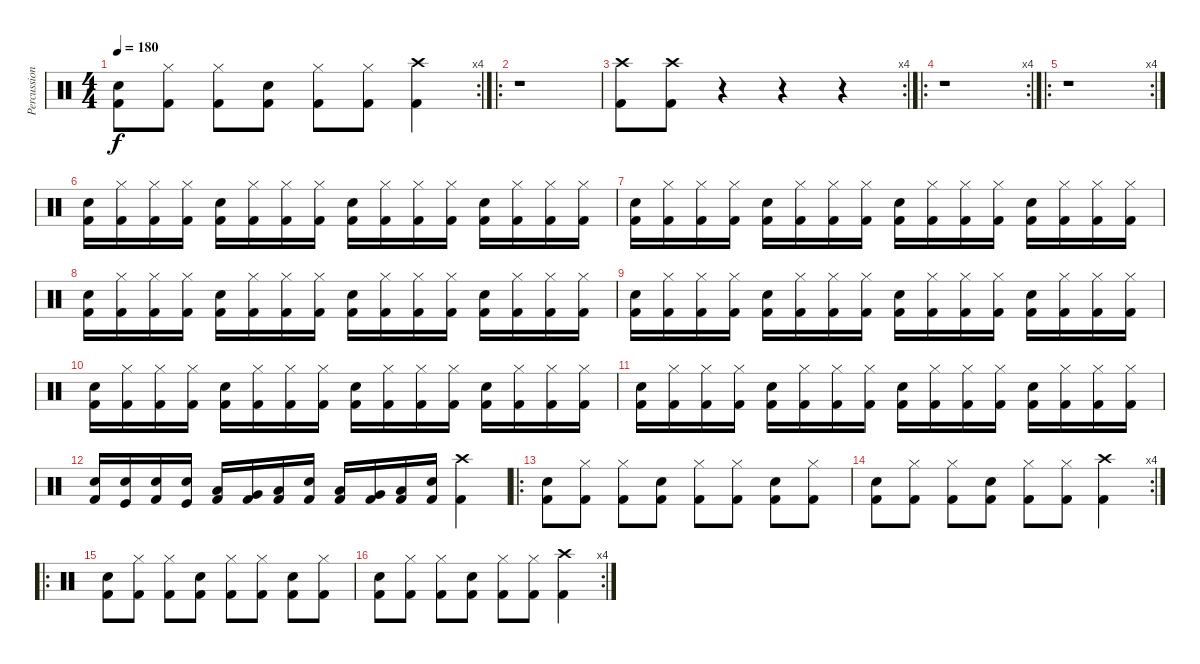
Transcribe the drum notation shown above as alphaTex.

\track ("Percussion" "Percussion") {instrument percussion}
\staff {score}
\articulation defaults
\rc 4
\ts (4 4)
\tempo 180
\clef neutral
\ks c
("Electric Snare (hit)" "Kick (hit) 2").8{dy f} ("Hi-Hat (closed)" "Kick (hit) 2").8 ("Hi-Hat (closed)" "Kick (hit) 2").8 ("Electric Snare (hit)" "Kick (hit) 2").8 ("Hi-Hat (closed)" "Kick (hit) 2").8 ("Hi-Hat (closed)" "Kick (hit) 2").8 ("Crash high (hit)" "Kick (hit) 2").4 |
\ro
r.1 |
\rc 4
("Crash high (hit)" "Kick (hit) 2").8 ("Crash high (hit)" "Kick (hit) 2").8 r.4 r.4 r.4 |
\ro
\rc 4
r.1 |
\ro
\rc 4
r.1 |
("Electric Snare (hit)" "Kick (hit) 2").16 ("Hi-Hat (closed)" "Kick (hit) 2").16 ("Hi-Hat (closed)" "Kick (hit) 2").16 ("Hi-Hat (closed)" "Kick (hit) 2").16 ("Electric Snare (hit)" "Kick (hit) 2").16 ("Hi-Hat (closed)" "Kick (hit) 2").16 ("Hi-Hat (closed)" "Kick (hit) 2").16 ("Hi-Hat (closed)" "Kick (hit) 2").16 ("Electric Snare (hit)" "Kick (hit) 2").16 ("Hi-Hat (closed)" "Kick (hit) 2").16 ("Hi-Hat (closed)" "Kick (hit) 2").16 ("Hi-Hat (closed)" "Kick (hit) 2").16 ("Electric Snare (hit)" "Kick (hit) 2").16 ("Hi-Hat (closed)" "Kick (hit) 2").16 ("Hi-Hat (closed)" "Kick (hit) 2").16 ("Hi-Hat (closed)" "Kick (hit) 2").16 |
("Electric Snare (hit)" "Kick (hit) 2").16 ("Hi-Hat (closed)" "Kick (hit) 2").16 ("Hi-Hat (closed)" "Kick (hit) 2").16 ("Hi-Hat (closed)" "Kick (hit) 2").16 ("Electric Snare (hit)" "Kick (hit) 2").16 ("Hi-Hat (closed)" "Kick (hit) 2").16 ("Hi-Hat (closed)" "Kick (hit) 2").16 ("Hi-Hat (closed)" "Kick (hit) 2").16 ("Electric Snare (hit)" "Kick (hit) 2").16 ("Hi-Hat (closed)" "Kick (hit) 2").16 ("Hi-Hat (closed)" "Kick (hit) 2").16 ("Hi-Hat (closed)" "Kick (hit) 2").16 ("Electric Snare (hit)" "Kick (hit) 2").16 ("Hi-Hat (closed)" "Kick (hit) 2").16 ("Hi-Hat (closed)" "Kick (hit) 2").16 ("Hi-Hat (closed)" "Kick (hit) 2").16 |
("Electric Snare (hit)" "Kick (hit) 2").16 ("Hi-Hat (closed)" "Kick (hit) 2").16 ("Hi-Hat (closed)" "Kick (hit) 2").16 ("Hi-Hat (closed)" "Kick (hit) 2").16 ("Electric Snare (hit)" "Kick (hit) 2").16 ("Hi-Hat (closed)" "Kick (hit) 2").16 ("Hi-Hat (closed)" "Kick (hit) 2").16 ("Hi-Hat (closed)" "Kick (hit) 2").16 ("Electric Snare (hit)" "Kick (hit) 2").16 ("Hi-Hat (closed)" "Kick (hit) 2").16 ("Hi-Hat (closed)" "Kick (hit) 2").16 ("Hi-Hat (closed)" "Kick (hit) 2").16 ("Electric Snare (hit)" "Kick (hit) 2").16 ("Hi-Hat (closed)" "Kick (hit) 2").16 ("Hi-Hat (closed)" "Kick (hit) 2").16 ("Hi-Hat (closed)" "Kick (hit) 2").16 |
("Electric Snare (hit)" "Kick (hit) 2").16 ("Hi-Hat (closed)" "Kick (hit) 2").16 ("Hi-Hat (closed)" "Kick (hit) 2").16 ("Hi-Hat (closed)" "Kick (hit) 2").16 ("Electric Snare (hit)" "Kick (hit) 2").16 ("Hi-Hat (closed)" "Kick (hit) 2").16 ("Hi-Hat (closed)" "Kick (hit) 2").16 ("Hi-Hat (closed)" "Kick (hit) 2").16 ("Electric Snare (hit)" "Kick (hit) 2").16 ("Hi-Hat (closed)" "Kick (hit) 2").16 ("Hi-Hat (closed)" "Kick (hit) 2").16 ("Hi-Hat (closed)" "Kick (hit) 2").16 ("Electric Snare (hit)" "Kick (hit) 2").16 ("Hi-Hat (closed)" "Kick (hit) 2").16 ("Hi-Hat (closed)" "Kick (hit) 2").16 ("Hi-Hat (closed)" "Kick (hit) 2").16 |
("Electric Snare (hit)" "Kick (hit) 2").16 ("Hi-Hat (closed)" "Kick (hit) 2").16 ("Hi-Hat (closed)" "Kick (hit) 2").16 ("Hi-Hat (closed)" "Kick (hit) 2").16 ("Electric Snare (hit)" "Kick (hit) 2").16 ("Hi-Hat (closed)" "Kick (hit) 2").16 ("Hi-Hat (closed)" "Kick (hit) 2").16 ("Hi-Hat (closed)" "Kick (hit) 2").16 ("Electric Snare (hit)" "Kick (hit) 2").16 ("Hi-Hat (closed)" "Kick (hit) 2").16 ("Hi-Hat (closed)" "Kick (hit) 2").16 ("Hi-Hat (closed)" "Kick (hit) 2").16 ("Electric Snare (hit)" "Kick (hit) 2").16 ("Hi-Hat (closed)" "Kick (hit) 2").16 ("Hi-Hat (closed)" "Kick (hit) 2").16 ("Hi-Hat (closed)" "Kick (hit) 2").16 |
("Electric Snare (hit)" "Kick (hit) 2").16 ("Hi-Hat (closed)" "Kick (hit) 2").16 ("Hi-Hat (closed)" "Kick (hit) 2").16 ("Hi-Hat (closed)" "Kick (hit) 2").16 ("Electric Snare (hit)" "Kick (hit) 2").16 ("Hi-Hat (closed)" "Kick (hit) 2").16 ("Hi-Hat (closed)" "Kick (hit) 2").16 ("Hi-Hat (closed)" "Kick (hit) 2").16 ("Electric Snare (hit)" "Kick (hit) 2").16 ("Hi-Hat (closed)" "Kick (hit) 2").16 ("Hi-Hat (closed)" "Kick (hit) 2").16 ("Hi-Hat (closed)" "Kick (hit) 2").16 ("Electric Snare (hit)" "Kick (hit) 2").16 ("Hi-Hat (closed)" "Kick (hit) 2").16 ("Hi-Hat (closed)" "Kick (hit) 2").16 ("Hi-Hat (closed)" "Kick (hit) 2").16 |
("Electric Snare (hit)" "Kick (hit) 2").16 ("Electric Snare (hit)" "Kick (hit)").16 ("Electric Snare (hit)" "Kick (hit) 2").16 ("Electric Snare (hit)" "Kick (hit)").16 ("Low Tom (hit)" "Kick (hit) 2").16 ("Very Low Tom (hit)" "Kick (hit) 2").16 ("Low Floor Tom (hit)" "Kick (hit) 2").16 ("Electric Snare (hit)" "Kick (hit) 2").16 ("Low Tom (hit)" "Kick (hit) 2").16 ("Very Low Tom (hit)" "Kick (hit) 2").16 ("Low Floor Tom (hit)" "Kick (hit) 2").16 ("Electric Snare (hit)" "Kick (hit) 2").16 ("Crash high (hit)" "Kick (hit) 2").4 |
\ro
("Electric Snare (hit)" "Kick (hit) 2").8 ("Hi-Hat (closed)" "Kick (hit) 2").8 ("Hi-Hat (closed)" "Kick (hit) 2").8 ("Electric Snare (hit)" "Kick (hit) 2").8 ("Hi-Hat (closed)" "Kick (hit) 2").8 ("Hi-Hat (closed)" "Kick (hit) 2").8 ("Electric Snare (hit)" "Kick (hit) 2").8 ("Hi-Hat (closed)" "Kick (hit) 2").8 |
\rc 4
("Electric Snare (hit)" "Kick (hit) 2").8 ("Hi-Hat (closed)" "Kick (hit) 2").8 ("Hi-Hat (closed)" "Kick (hit) 2").8 ("Electric Snare (hit)" "Kick (hit) 2").8 ("Hi-Hat (closed)" "Kick (hit) 2").8 ("Hi-Hat (closed)" "Kick (hit) 2").8 ("Crash high (hit)" "Kick (hit) 2").4 |
\ro
("Electric Snare (hit)" "Kick (hit) 2").8 ("Hi-Hat (closed)" "Kick (hit) 2").8 ("Hi-Hat (closed)" "Kick (hit) 2").8 ("Electric Snare (hit)" "Kick (hit) 2").8 ("Hi-Hat (closed)" "Kick (hit) 2").8 ("Hi-Hat (closed)" "Kick (hit) 2").8 ("Electric Snare (hit)" "Kick (hit) 2").8 ("Hi-Hat (closed)" "Kick (hit) 2").8 |
\rc 4
("Electric Snare (hit)" "Kick (hit) 2").8 ("Hi-Hat (closed)" "Kick (hit) 2").8 ("Hi-Hat (closed)" "Kick (hit) 2").8 ("Electric Snare (hit)" "Kick (hit) 2").8 ("Hi-Hat (closed)" "Kick (hit) 2").8 ("Hi-Hat (closed)" "Kick (hit) 2").8 ("Crash high (hit)" "Kick (hit) 2").4
